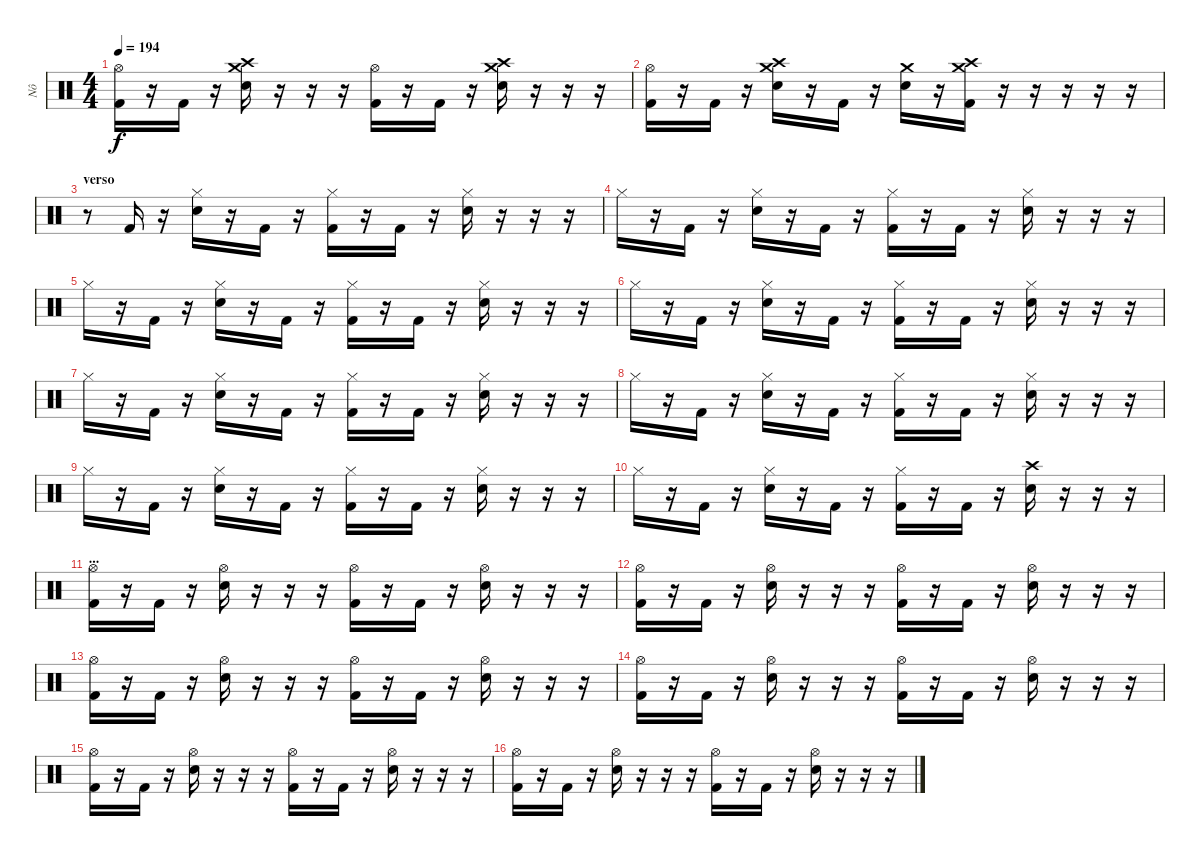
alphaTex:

\track ("Nô" "Nô") {instrument percussion}
\staff {score}
\articulation defaults
\ts (4 4)
\tempo 194
\clef neutral
\ks c
("Hi-Hat (open)" "Kick (hit) 2").16{dy f} r.16 "Kick (hit) 2".16 r.16 ("Crash medium (hit)" "Crash high (hit)" "Electric Snare (hit)").16 r.16 r.16 r.16 ("Hi-Hat (open)" "Kick (hit) 2").16 r.16 "Kick (hit) 2".16 r.16 ("Crash medium (hit)" "Crash high (hit)" "Electric Snare (hit)").16 r.16 r.16 r.16 |
("Hi-Hat (open)" "Kick (hit) 2").16 r.16 "Kick (hit) 2".16 r.16 ("Crash medium (hit)" "Crash high (hit)" "Electric Snare (hit)").16 r.16 "Kick (hit) 2".16 r.16 ("Crash medium (hit)" "Electric Snare (hit)").16 r.16 ("Crash high (hit)" "Crash medium (hit)" "Kick (hit) 2").16 r.16 r.16 r.16 r.16 r.16 |
\section ("" "verso")
r.8 "Kick (hit) 2".16 r.16 ("Hi-Hat (closed)" "Electric Snare (hit)").16 r.16 "Kick (hit) 2".16 r.16 ("Hi-Hat (closed)" "Kick (hit) 2").16 r.16 "Kick (hit) 2".16 r.16 ("Hi-Hat (closed)" "Electric Snare (hit)").16 r.16 r.16 r.16 |
"Hi-Hat (closed)".16 r.16 "Kick (hit) 2".16 r.16 ("Hi-Hat (closed)" "Electric Snare (hit)").16 r.16 "Kick (hit) 2".16 r.16 ("Hi-Hat (closed)" "Kick (hit) 2").16 r.16 "Kick (hit) 2".16 r.16 ("Hi-Hat (closed)" "Electric Snare (hit)").16 r.16 r.16 r.16 |
"Hi-Hat (closed)".16 r.16 "Kick (hit) 2".16 r.16 ("Hi-Hat (closed)" "Electric Snare (hit)").16 r.16 "Kick (hit) 2".16 r.16 ("Hi-Hat (closed)" "Kick (hit) 2").16 r.16 "Kick (hit) 2".16 r.16 ("Hi-Hat (closed)" "Electric Snare (hit)").16 r.16 r.16 r.16 |
"Hi-Hat (closed)".16 r.16 "Kick (hit) 2".16 r.16 ("Hi-Hat (closed)" "Electric Snare (hit)").16 r.16 "Kick (hit) 2".16 r.16 ("Hi-Hat (closed)" "Kick (hit) 2").16 r.16 "Kick (hit) 2".16 r.16 ("Hi-Hat (closed)" "Electric Snare (hit)").16 r.16 r.16 r.16 |
"Hi-Hat (closed)".16 r.16 "Kick (hit) 2".16 r.16 ("Hi-Hat (closed)" "Electric Snare (hit)").16 r.16 "Kick (hit) 2".16 r.16 ("Hi-Hat (closed)" "Kick (hit) 2").16 r.16 "Kick (hit) 2".16 r.16 ("Hi-Hat (closed)" "Electric Snare (hit)").16 r.16 r.16 r.16 |
"Hi-Hat (closed)".16 r.16 "Kick (hit) 2".16 r.16 ("Hi-Hat (closed)" "Electric Snare (hit)").16 r.16 "Kick (hit) 2".16 r.16 ("Hi-Hat (closed)" "Kick (hit) 2").16 r.16 "Kick (hit) 2".16 r.16 ("Hi-Hat (closed)" "Electric Snare (hit)").16 r.16 r.16 r.16 |
"Hi-Hat (closed)".16 r.16 "Kick (hit) 2".16 r.16 ("Hi-Hat (closed)" "Electric Snare (hit)").16 r.16 "Kick (hit) 2".16 r.16 ("Hi-Hat (closed)" "Kick (hit) 2").16 r.16 "Kick (hit) 2".16 r.16 ("Hi-Hat (closed)" "Electric Snare (hit)").16 r.16 r.16 r.16 |
"Hi-Hat (closed)".16 r.16 "Kick (hit) 2".16 r.16 ("Hi-Hat (closed)" "Electric Snare (hit)").16 r.16 "Kick (hit) 2".16 r.16 ("Hi-Hat (closed)" "Kick (hit) 2").16 r.16 "Kick (hit) 2".16 r.16 ("Crash high (hit)" "Electric Snare (hit)").16 r.16 r.16 r.16 |
\section ("" "...")
("Hi-Hat (open)" "Kick (hit) 2").16 r.16 "Kick (hit) 2".16 r.16 ("Hi-Hat (open)" "Electric Snare (hit)").16 r.16 r.16 r.16 ("Hi-Hat (open)" "Kick (hit) 2").16 r.16 "Kick (hit) 2".16 r.16 ("Hi-Hat (open)" "Electric Snare (hit)").16 r.16 r.16 r.16 |
("Hi-Hat (open)" "Kick (hit) 2").16 r.16 "Kick (hit) 2".16 r.16 ("Hi-Hat (open)" "Electric Snare (hit)").16 r.16 r.16 r.16 ("Hi-Hat (open)" "Kick (hit) 2").16 r.16 "Kick (hit) 2".16 r.16 ("Hi-Hat (open)" "Electric Snare (hit)").16 r.16 r.16 r.16 |
("Hi-Hat (open)" "Kick (hit) 2").16 r.16 "Kick (hit) 2".16 r.16 ("Hi-Hat (open)" "Electric Snare (hit)").16 r.16 r.16 r.16 ("Hi-Hat (open)" "Kick (hit) 2").16 r.16 "Kick (hit) 2".16 r.16 ("Hi-Hat (open)" "Electric Snare (hit)").16 r.16 r.16 r.16 |
("Hi-Hat (open)" "Kick (hit) 2").16 r.16 "Kick (hit) 2".16 r.16 ("Hi-Hat (open)" "Electric Snare (hit)").16 r.16 r.16 r.16 ("Hi-Hat (open)" "Kick (hit) 2").16 r.16 "Kick (hit) 2".16 r.16 ("Hi-Hat (open)" "Electric Snare (hit)").16 r.16 r.16 r.16 |
("Hi-Hat (open)" "Kick (hit) 2").16 r.16 "Kick (hit) 2".16 r.16 ("Hi-Hat (open)" "Electric Snare (hit)").16 r.16 r.16 r.16 ("Hi-Hat (open)" "Kick (hit) 2").16 r.16 "Kick (hit) 2".16 r.16 ("Hi-Hat (open)" "Electric Snare (hit)").16 r.16 r.16 r.16 |
("Hi-Hat (open)" "Kick (hit) 2").16 r.16 "Kick (hit) 2".16 r.16 ("Hi-Hat (open)" "Electric Snare (hit)").16 r.16 r.16 r.16 ("Hi-Hat (open)" "Kick (hit) 2").16 r.16 "Kick (hit) 2".16 r.16 ("Hi-Hat (open)" "Electric Snare (hit)").16 r.16 r.16 r.16
